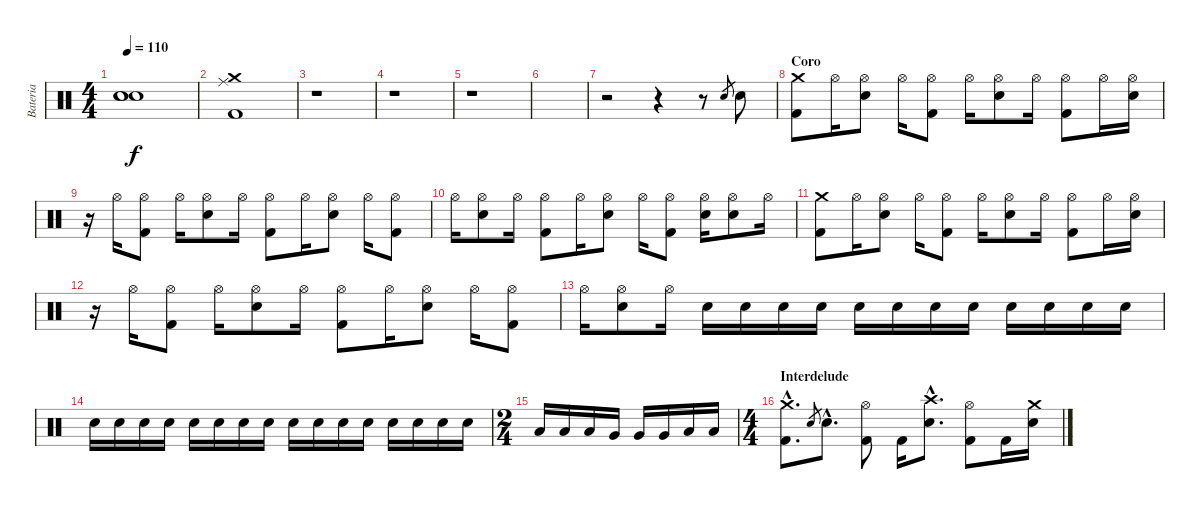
\track ("Bateria" "Bateria") {instrument percussion}
\staff {score}
\articulation defaults
\ts (4 4)
\tempo 110
\clef neutral
\ks c
("Snare (hit)"{t} "Snare (hit)"{t} "Snare (hit)"{t}).1{dy f} |
("Ride (middle)" "Crash medium (hit)" "Kick (hit) 2").1 |
r.1 |
r.1 |
r.1 |
|
r.2 r.4 r.8 "Snare (hit) 2".8{gr} "Snare (hit) 2".8 |
\section ("" "Coro")
("Crash medium (hit)" "Kick (hit) 2").8 "Hi-Hat (open)".16 ("Hi-Hat (open)" "Snare (hit) 2").8 "Hi-Hat (open)".16 ("Hi-Hat (open)" "Kick (hit) 2").8 "Hi-Hat (open)".16 ("Hi-Hat (open)" "Snare (hit) 2").8 "Hi-Hat (open)".16 ("Hi-Hat (open)" "Kick (hit) 2").8 "Hi-Hat (open)".16 ("Hi-Hat (open)" "Snare (hit) 2").16 |
r.16 "Hi-Hat (open)".16 ("Hi-Hat (open)" "Kick (hit) 2").8 "Hi-Hat (open)".16 ("Hi-Hat (open)" "Snare (hit) 2").8 "Hi-Hat (open)".16 ("Hi-Hat (open)" "Kick (hit) 2").8 "Hi-Hat (open)".16 ("Hi-Hat (open)" "Snare (hit) 2").8 "Hi-Hat (open)".16 ("Hi-Hat (open)" "Kick (hit) 2").8 |
"Hi-Hat (open)".16 ("Hi-Hat (open)" "Snare (hit) 2").8 "Hi-Hat (open)".16 ("Hi-Hat (open)" "Kick (hit) 2").8 "Hi-Hat (open)".16 ("Hi-Hat (open)" "Snare (hit) 2").8 "Hi-Hat (open)".16 ("Hi-Hat (open)" "Kick (hit) 2").8 ("Hi-Hat (open)" "Snare (hit) 2").16 ("Hi-Hat (open)" "Snare (hit) 2").8 "Hi-Hat (open)".16 |
("Crash medium (hit)" "Kick (hit) 2").8 "Hi-Hat (open)".16 ("Hi-Hat (open)" "Snare (hit) 2").8 "Hi-Hat (open)".16 ("Hi-Hat (open)" "Kick (hit) 2").8 "Hi-Hat (open)".16 ("Hi-Hat (open)" "Snare (hit) 2").8 "Hi-Hat (open)".16 ("Hi-Hat (open)" "Kick (hit) 2").8 "Hi-Hat (open)".16 ("Hi-Hat (open)" "Snare (hit) 2").16 |
r.16 "Hi-Hat (open)".16 ("Hi-Hat (open)" "Kick (hit) 2").8 "Hi-Hat (open)".16 ("Hi-Hat (open)" "Snare (hit) 2").8 "Hi-Hat (open)".16 ("Hi-Hat (open)" "Kick (hit) 2").8 "Hi-Hat (open)".16 ("Hi-Hat (open)" "Snare (hit) 2").8 "Hi-Hat (open)".16 ("Hi-Hat (open)" "Kick (hit) 2").8 |
"Hi-Hat (open)".16 ("Hi-Hat (open)" "Snare (hit) 2").8 "Hi-Hat (open)".16 "Snare (hit) 2".16 "Snare (hit) 2".16 "Snare (hit) 2".16 "Snare (hit) 2".16 "Snare (hit) 2".16 "Snare (hit) 2".16 "Snare (hit) 2".16 "Snare (hit) 2".16 "Snare (hit) 2".16 "Snare (hit) 2".16 "Snare (hit) 2".16 "Snare (hit) 2".16 |
"Snare (hit) 2".16 "Snare (hit) 2".16 "Snare (hit) 2".16 "Snare (hit) 2".16 "Snare (hit) 2".16 "Snare (hit) 2".16 "Snare (hit) 2".16 "Snare (hit) 2".16 "Snare (hit) 2".16 "Snare (hit) 2".16 "Snare (hit) 2".16 "Snare (hit) 2".16 "Snare (hit) 2".16 "Snare (hit) 2".16 "Snare (hit) 2".16 "Snare (hit) 2".16 |
\ts (2 4)
"Low Tom (hit)".16 "Low Tom (hit)".16 "Low Tom (hit)".16 "Very Low Tom (hit)".16 "Very Low Tom (hit)".16 "Very Low Tom (hit)".16 "Low Floor Tom (hit)".16 "Low Floor Tom (hit)".16 |
\ts (4 4)
\section ("" "Interdelude")
("Crash medium (hit)"{hac} "Kick (hit) 2"{hac}).8{d} "Snare (hit) 2".8{gr} "Snare (hit) 2"{hac}.8{d} ("Hi-Hat (open)" "Kick (hit) 2").8 "Kick (hit) 2".16 ("Crash high (hit)"{hac} "Snare (hit) 2"{hac}).8{d} ("Hi-Hat (open)" "Kick (hit) 2").8 "Kick (hit) 2".16 ("Snare (hit) 2" "Crash medium (hit)").16
